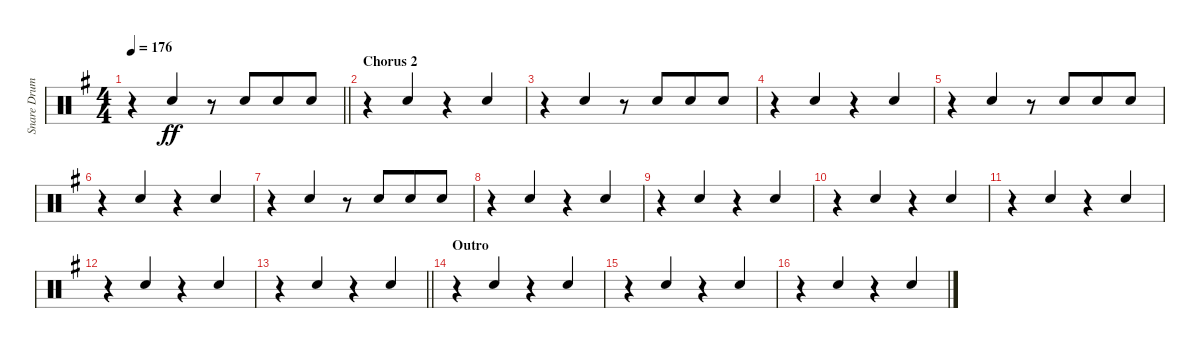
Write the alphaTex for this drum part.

\track ("Snare Drum" "Snare Drum") {instrument percussion}
\staff {score}
\articulation defaults
\ts (4 4)
\tempo 176
\clef neutral
\barLineRight lightlight
\ks eminor
r.4{dy ff} "Electric Snare (hit)".4{beam Up} r.8 "Electric Snare (hit)".8{beam Up beam merge} "Electric Snare (hit)".8{beam Up} "Electric Snare (hit)".8{beam Up} |
\section ("" "Chorus 2")
r.4 "Electric Snare (hit)".4{beam Up} r.4 "Electric Snare (hit)".4{beam Up} |
r.4 "Electric Snare (hit)".4{beam Up} r.8 "Electric Snare (hit)".8{beam Up beam merge} "Electric Snare (hit)".8{beam Up} "Electric Snare (hit)".8{beam Up} |
r.4 "Electric Snare (hit)".4{beam Up} r.4 "Electric Snare (hit)".4{beam Up} |
r.4 "Electric Snare (hit)".4{beam Up} r.8 "Electric Snare (hit)".8{beam Up beam merge} "Electric Snare (hit)".8{beam Up} "Electric Snare (hit)".8{beam Up} |
r.4 "Electric Snare (hit)".4{beam Up} r.4 "Electric Snare (hit)".4{beam Up} |
r.4 "Electric Snare (hit)".4{beam Up} r.8 "Electric Snare (hit)".8{beam Up beam merge} "Electric Snare (hit)".8{beam Up} "Electric Snare (hit)".8{beam Up} |
r.4 "Electric Snare (hit)".4{beam Up} r.4 "Electric Snare (hit)".4{beam Up} |
r.4 "Electric Snare (hit)".4{beam Up} r.4 "Electric Snare (hit)".4{beam Up} |
r.4 "Electric Snare (hit)".4{beam Up} r.4 "Electric Snare (hit)".4{beam Up} |
r.4 "Electric Snare (hit)".4{beam Up} r.4 "Electric Snare (hit)".4{beam Up} |
r.4 "Electric Snare (hit)".4{beam Up} r.4 "Electric Snare (hit)".4{beam Up} |
\barLineRight lightlight
r.4 "Electric Snare (hit)".4{beam Up} r.4 "Electric Snare (hit)".4{beam Up} |
\section ("" "Outro")
r.4 "Electric Snare (hit)".4{beam Up} r.4 "Electric Snare (hit)".4{beam Up} |
r.4 "Electric Snare (hit)".4{beam Up} r.4 "Electric Snare (hit)".4{beam Up} |
r.4 "Electric Snare (hit)".4{beam Up} r.4 "Electric Snare (hit)".4{beam Up}
